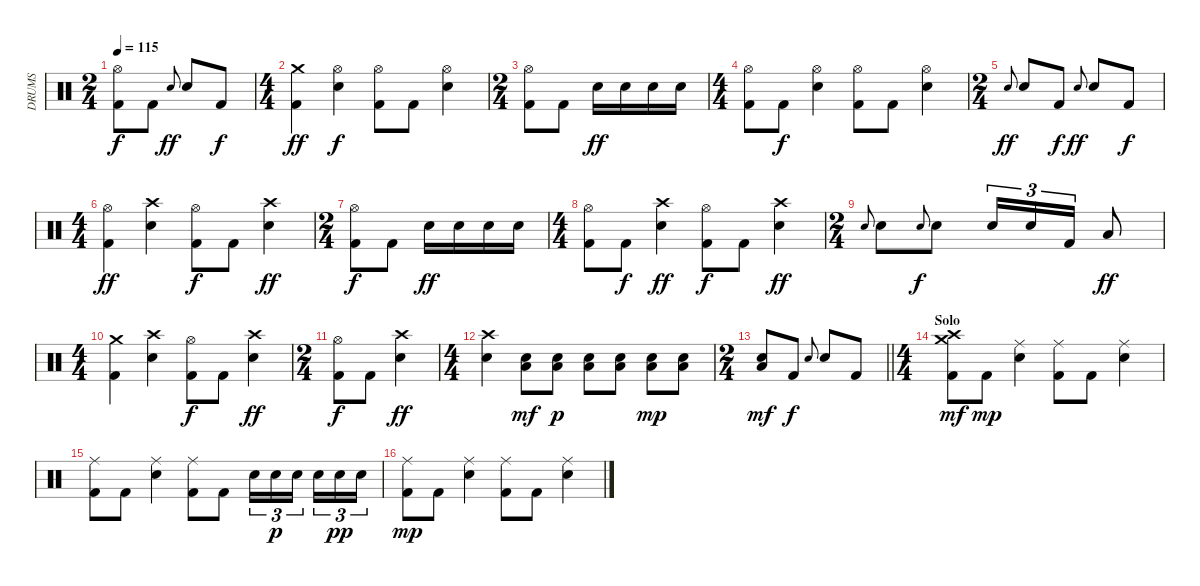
\track ("DRUMS" "DRUMS") {instrument percussion}
\staff {score}
\articulation defaults
\ts (2 4)
\tempo 115
\clef neutral
\ks c
("Hi-Hat (open)" "Kick (hit) 2").8{dy f} "Kick (hit) 2".8 "Electric Snare (hit)".8{gr onbeat dy ff} "Snare (hit) 2".8 "Kick (hit) 2".8{dy f} |
\ts (4 4)
("Crash medium (hit)" "Kick (hit) 2").4{dy ff} ("Hi-Hat (open)" "Snare (hit) 2").4{dy f} ("Hi-Hat (open)" "Kick (hit) 2").8 "Kick (hit) 2".8 ("Hi-Hat (open)" "Snare (hit) 2").4 |
\ts (2 4)
("Hi-Hat (open)" "Kick (hit) 2").8 "Kick (hit) 2".8 "Electric Snare (hit)".16{dy ff} "Snare (hit) 2".16 "Electric Snare (hit)".16 "Snare (hit) 2".16 |
\ts (4 4)
("Hi-Hat (open)" "Kick (hit) 2").8 "Kick (hit) 2".8{dy f} ("Hi-Hat (open)" "Snare (hit) 2").4 ("Hi-Hat (open)" "Kick (hit) 2").8 "Kick (hit) 2".8 ("Hi-Hat (open)" "Snare (hit) 2").4 |
\ts (2 4)
"Electric Snare (hit)".8{gr onbeat dy ff} "Snare (hit) 2".8 "Kick (hit) 2".8{dy f} "Electric Snare (hit)".8{gr onbeat dy ff} "Snare (hit) 2".8 "Kick (hit) 2".8{dy f} |
\ts (4 4)
("Hi-Hat (open)" "Kick (hit) 2").4{dy ff} ("Crash high (hit)" "Snare (hit) 2").4 ("Hi-Hat (open)" "Kick (hit) 2").8{dy f} "Kick (hit) 2".8 ("Crash high (hit)" "Snare (hit) 2").4{dy ff} |
\ts (2 4)
("Hi-Hat (open)" "Kick (hit) 2").8{dy f} "Kick (hit) 2".8 "Electric Snare (hit)".16{dy ff} "Snare (hit) 2".16 "Electric Snare (hit)".16 "Snare (hit) 2".16 |
\ts (4 4)
("Hi-Hat (open)" "Kick (hit) 2").8 "Kick (hit) 2".8{dy f} ("Crash high (hit)" "Snare (hit) 2").4{dy ff} ("Hi-Hat (open)" "Kick (hit) 2").8{dy f} "Kick (hit) 2".8 ("Crash high (hit)" "Snare (hit) 2").4{dy ff} |
\ts (2 4)
"Electric Snare (hit)".8{gr onbeat} "Snare (hit) 2".8 "Electric Snare (hit)".8{gr onbeat dy f} "Snare (hit) 2".8 "Electric Snare (hit)".16{tu (3 2)} "Snare (hit) 2".16{tu (3 2)} "Kick (hit) 2".16{tu (3 2)} "Low Floor Tom (hit)".8{dy ff} |
\ts (4 4)
("Crash medium (hit)" "Kick (hit) 2").4 ("Crash high (hit)" "Snare (hit) 2").4 ("Hi-Hat (open)" "Kick (hit) 2").8{dy f} "Kick (hit) 2".8 ("Crash high (hit)" "Snare (hit) 2").4{dy ff} |
\ts (2 4)
("Hi-Hat (open)" "Kick (hit) 2").8{dy f} "Kick (hit) 2".8 ("Crash high (hit)" "Snare (hit) 2").4{dy ff} |
\ts (4 4)
("Crash high (hit)" "Snare (hit) 2").4 ("Snare (hit) 2" "Low Floor Tom (hit)").8{dy mf} ("Snare (hit) 2" "Low Floor Tom (hit)").8{dy p} ("Snare (hit) 2" "Low Floor Tom (hit)").8 ("Snare (hit) 2" "Low Floor Tom (hit)").8 ("Snare (hit) 2" "Low Floor Tom (hit)").8{dy mp} ("Snare (hit) 2" "Low Floor Tom (hit)").8 |
\ts (2 4)
\barLineRight lightlight
("Snare (hit) 2" "Low Floor Tom (hit)").8{dy mf} "Kick (hit) 2".8{dy f} "Electric Snare (hit)".8{gr onbeat} "Snare (hit) 2".8 "Kick (hit) 2".8 |
\ts (4 4)
\section ("" "Solo")
("Crash medium (hit)" "Crash high (hit)" "Kick (hit) 2").8{dy mf} "Kick (hit) 2".8{dy mp} ("Ride (middle)" "Snare (hit) 2").4 ("Ride (middle)" "Kick (hit) 2").8 "Kick (hit) 2".8 ("Ride (middle)" "Snare (hit) 2").4 |
("Ride (middle)" "Kick (hit) 2").8 "Kick (hit) 2".8 ("Ride (middle)" "Snare (hit) 2").4 ("Ride (middle)" "Kick (hit) 2").8 "Kick (hit) 2".8 "Electric Snare (hit)".16{tu (3 2)} "Snare (hit) 2".16{tu (3 2) dy p} "Electric Snare (hit)".16{tu (3 2) beam splitsecondary} "Snare (hit) 2".16{tu (3 2)} "Electric Snare (hit)".16{tu (3 2) dy pp} "Snare (hit) 2".16{tu (3 2)} |
("Ride (middle)" "Kick (hit) 2").8{dy mp} "Kick (hit) 2".8 ("Ride (middle)" "Snare (hit) 2").4 ("Ride (middle)" "Kick (hit) 2").8 "Kick (hit) 2".8 ("Ride (middle)" "Snare (hit) 2").4
